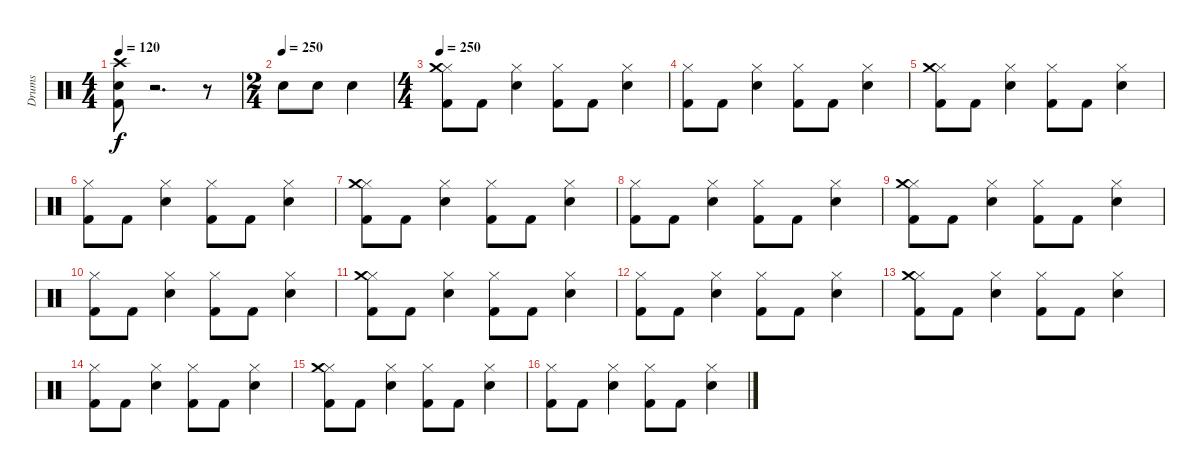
\track ("Drums" "Drums") {instrument percussion}
\staff {score}
\articulation defaults
\ts (4 4)
\tempo 120
\clef neutral
\ks c
("Kick (hit) 2" "Snare (hit) 2" "Crash high (hit)").8{dy f} r.2{d} r.8 |
\ts (2 4)
\tempo (250)
"Snare (hit) 2".8 "Snare (hit) 2".8 "Snare (hit) 2".4 |
\ts (4 4)
\tempo 250
("Kick (hit) 2" "Hi-Hat (closed)" "Crash medium (hit)").8 "Kick (hit) 2".8 ("Snare (hit) 2" "Hi-Hat (closed)").4 ("Kick (hit) 2" "Hi-Hat (closed)").8 "Kick (hit) 2".8 ("Snare (hit) 2" "Hi-Hat (closed)").4 |
("Kick (hit) 2" "Hi-Hat (closed)").8 "Kick (hit) 2".8 ("Snare (hit) 2" "Hi-Hat (closed)").4 ("Kick (hit) 2" "Hi-Hat (closed)").8 "Kick (hit) 2".8 ("Snare (hit) 2" "Hi-Hat (closed)").4 |
("Kick (hit) 2" "Hi-Hat (closed)" "Crash medium (hit)").8 "Kick (hit) 2".8 ("Snare (hit) 2" "Hi-Hat (closed)").4 ("Kick (hit) 2" "Hi-Hat (closed)").8 "Kick (hit) 2".8 ("Snare (hit) 2" "Hi-Hat (closed)").4 |
("Kick (hit) 2" "Hi-Hat (closed)").8 "Kick (hit) 2".8 ("Snare (hit) 2" "Hi-Hat (closed)").4 ("Kick (hit) 2" "Hi-Hat (closed)").8 "Kick (hit) 2".8 ("Snare (hit) 2" "Hi-Hat (closed)").4 |
("Kick (hit) 2" "Hi-Hat (closed)" "Crash medium (hit)").8 "Kick (hit) 2".8 ("Snare (hit) 2" "Hi-Hat (closed)").4 ("Kick (hit) 2" "Hi-Hat (closed)").8 "Kick (hit) 2".8 ("Snare (hit) 2" "Hi-Hat (closed)").4 |
("Kick (hit) 2" "Hi-Hat (closed)").8 "Kick (hit) 2".8 ("Snare (hit) 2" "Hi-Hat (closed)").4 ("Kick (hit) 2" "Hi-Hat (closed)").8 "Kick (hit) 2".8 ("Snare (hit) 2" "Hi-Hat (closed)").4 |
("Kick (hit) 2" "Hi-Hat (closed)" "Crash medium (hit)").8 "Kick (hit) 2".8 ("Snare (hit) 2" "Hi-Hat (closed)").4 ("Kick (hit) 2" "Hi-Hat (closed)").8 "Kick (hit) 2".8 ("Snare (hit) 2" "Hi-Hat (closed)").4 |
("Kick (hit) 2" "Hi-Hat (closed)").8 "Kick (hit) 2".8 ("Snare (hit) 2" "Hi-Hat (closed)").4 ("Kick (hit) 2" "Hi-Hat (closed)").8 "Kick (hit) 2".8 ("Snare (hit) 2" "Hi-Hat (closed)").4 |
("Kick (hit) 2" "Hi-Hat (closed)" "Crash medium (hit)").8 "Kick (hit) 2".8 ("Snare (hit) 2" "Hi-Hat (closed)").4 ("Kick (hit) 2" "Hi-Hat (closed)").8 "Kick (hit) 2".8 ("Snare (hit) 2" "Hi-Hat (closed)").4 |
("Kick (hit) 2" "Hi-Hat (closed)").8 "Kick (hit) 2".8 ("Snare (hit) 2" "Hi-Hat (closed)").4 ("Kick (hit) 2" "Hi-Hat (closed)").8 "Kick (hit) 2".8 ("Snare (hit) 2" "Hi-Hat (closed)").4 |
("Kick (hit) 2" "Hi-Hat (closed)" "Crash medium (hit)").8 "Kick (hit) 2".8 ("Snare (hit) 2" "Hi-Hat (closed)").4 ("Kick (hit) 2" "Hi-Hat (closed)").8 "Kick (hit) 2".8 ("Snare (hit) 2" "Hi-Hat (closed)").4 |
("Kick (hit) 2" "Hi-Hat (closed)").8 "Kick (hit) 2".8 ("Snare (hit) 2" "Hi-Hat (closed)").4 ("Kick (hit) 2" "Hi-Hat (closed)").8 "Kick (hit) 2".8 ("Snare (hit) 2" "Hi-Hat (closed)").4 |
("Kick (hit) 2" "Hi-Hat (closed)" "Crash medium (hit)").8 "Kick (hit) 2".8 ("Snare (hit) 2" "Hi-Hat (closed)").4 ("Kick (hit) 2" "Hi-Hat (closed)").8 "Kick (hit) 2".8 ("Snare (hit) 2" "Hi-Hat (closed)").4 |
("Kick (hit) 2" "Hi-Hat (closed)").8 "Kick (hit) 2".8 ("Snare (hit) 2" "Hi-Hat (closed)").4 ("Kick (hit) 2" "Hi-Hat (closed)").8 "Kick (hit) 2".8 ("Snare (hit) 2" "Hi-Hat (closed)").4
